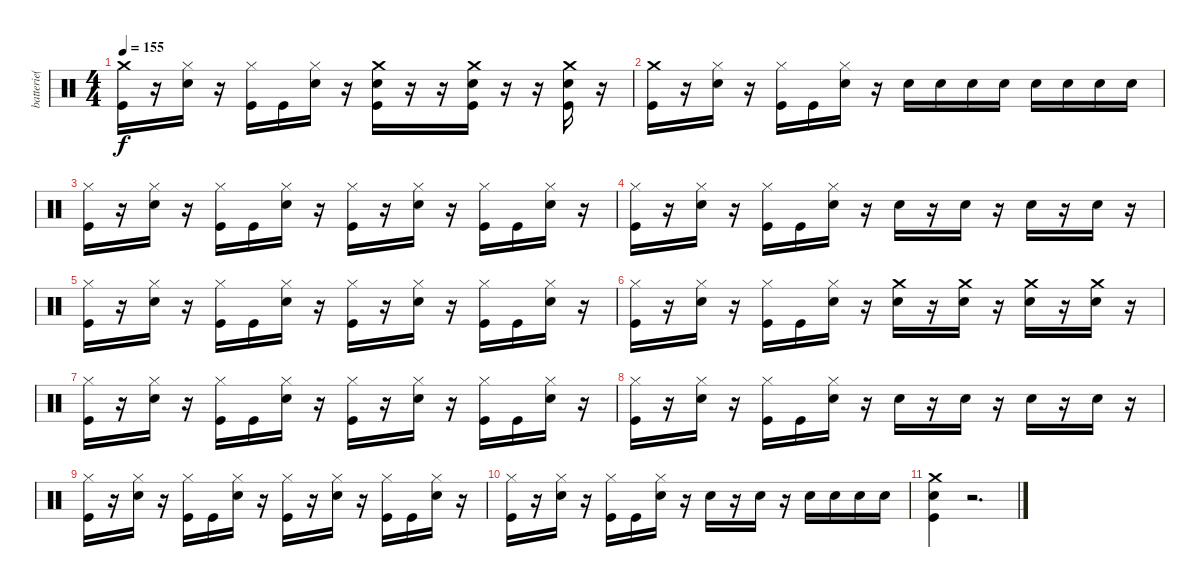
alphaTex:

\track ("batterie( Shawn )" "batterie( ") {instrument percussion}
\staff {score}
\articulation defaults
\ts (4 4)
\tempo 155
\clef neutral
\ks c
("Crash medium (hit)" "Kick (hit)").16{dy f} r.16 ("Hi-Hat (closed)" "Snare (hit) 2").16 r.16 ("Hi-Hat (closed)" "Kick (hit)").16 "Kick (hit)".16 ("Hi-Hat (closed)" "Snare (hit) 2").16 r.16 ("Crash medium (hit)" "Snare (hit) 2" "Kick (hit)").16 r.16 r.16 ("Crash medium (hit)" "Snare (hit) 2" "Kick (hit)").16 r.16 r.16 ("Crash medium (hit)" "Snare (hit) 2" "Kick (hit)").16 r.16 |
("Crash medium (hit)" "Kick (hit)").16 r.16 ("Hi-Hat (closed)" "Snare (hit) 2").16 r.16 ("Hi-Hat (closed)" "Kick (hit)").16 "Kick (hit)".16 ("Hi-Hat (closed)" "Snare (hit) 2").16 r.16 "Snare (hit) 2".16 "Snare (hit) 2".16 "Snare (hit) 2".16 "Snare (hit) 2".16 "Snare (hit) 2".16 "Snare (hit) 2".16 "Snare (hit) 2".16 "Snare (hit) 2".16 |
("Hi-Hat (closed)" "Kick (hit)").16 r.16 ("Hi-Hat (closed)" "Snare (hit) 2").16 r.16 ("Hi-Hat (closed)" "Kick (hit)").16 "Kick (hit)".16 ("Hi-Hat (closed)" "Snare (hit) 2").16 r.16 ("Hi-Hat (closed)" "Kick (hit)").16 r.16 ("Hi-Hat (closed)" "Snare (hit) 2").16 r.16 ("Hi-Hat (closed)" "Kick (hit)").16 "Kick (hit)".16 ("Hi-Hat (closed)" "Snare (hit) 2").16 r.16 |
("Hi-Hat (closed)" "Kick (hit)").16 r.16 ("Hi-Hat (closed)" "Snare (hit) 2").16 r.16 ("Hi-Hat (closed)" "Kick (hit)").16 "Kick (hit)".16 ("Hi-Hat (closed)" "Snare (hit) 2").16 r.16 "Snare (hit) 2".16 r.16 "Snare (hit) 2".16 r.16 "Snare (hit) 2".16 r.16 "Snare (hit) 2".16 r.16 |
("Hi-Hat (closed)" "Kick (hit)").16 r.16 ("Hi-Hat (closed)" "Snare (hit) 2").16 r.16 ("Hi-Hat (closed)" "Kick (hit)").16 "Kick (hit)".16 ("Hi-Hat (closed)" "Snare (hit) 2").16 r.16 ("Hi-Hat (closed)" "Kick (hit)").16 r.16 ("Hi-Hat (closed)" "Snare (hit) 2").16 r.16 ("Hi-Hat (closed)" "Kick (hit)").16 "Kick (hit)".16 ("Hi-Hat (closed)" "Snare (hit) 2").16 r.16 |
("Hi-Hat (closed)" "Kick (hit)").16 r.16 ("Hi-Hat (closed)" "Snare (hit) 2").16 r.16 ("Hi-Hat (closed)" "Kick (hit)").16 "Kick (hit)".16 ("Hi-Hat (closed)" "Snare (hit) 2").16 r.16 ("Crash medium (hit)" "Snare (hit) 2").16 r.16 ("Crash medium (hit)" "Snare (hit) 2").16 r.16 ("Crash medium (hit)" "Snare (hit) 2").16 r.16 ("Crash medium (hit)" "Snare (hit) 2").16 r.16 |
("Hi-Hat (closed)" "Kick (hit)").16 r.16 ("Hi-Hat (closed)" "Snare (hit) 2").16 r.16 ("Hi-Hat (closed)" "Kick (hit)").16 "Kick (hit)".16 ("Hi-Hat (closed)" "Snare (hit) 2").16 r.16 ("Hi-Hat (closed)" "Kick (hit)").16 r.16 ("Hi-Hat (closed)" "Snare (hit) 2").16 r.16 ("Hi-Hat (closed)" "Kick (hit)").16 "Kick (hit)".16 ("Hi-Hat (closed)" "Snare (hit) 2").16 r.16 |
("Hi-Hat (closed)" "Kick (hit)").16 r.16 ("Hi-Hat (closed)" "Snare (hit) 2").16 r.16 ("Hi-Hat (closed)" "Kick (hit)").16 "Kick (hit)".16 ("Hi-Hat (closed)" "Snare (hit) 2").16 r.16 "Snare (hit) 2".16 r.16 "Snare (hit) 2".16 r.16 "Snare (hit) 2".16 r.16 "Snare (hit) 2".16 r.16 |
("Hi-Hat (closed)" "Kick (hit)").16 r.16 ("Hi-Hat (closed)" "Snare (hit) 2").16 r.16 ("Hi-Hat (closed)" "Kick (hit)").16 "Kick (hit)".16 ("Hi-Hat (closed)" "Snare (hit) 2").16 r.16 ("Hi-Hat (closed)" "Kick (hit)").16 r.16 ("Hi-Hat (closed)" "Snare (hit) 2").16 r.16 ("Hi-Hat (closed)" "Kick (hit)").16 "Kick (hit)".16 ("Hi-Hat (closed)" "Snare (hit) 2").16 r.16 |
("Hi-Hat (closed)" "Kick (hit)").16 r.16 ("Hi-Hat (closed)" "Snare (hit) 2").16 r.16 ("Hi-Hat (closed)" "Kick (hit)").16 "Kick (hit)".16 ("Hi-Hat (closed)" "Snare (hit) 2").16 r.16 "Snare (hit) 2".16 r.16 "Snare (hit) 2".16 r.16 "Snare (hit) 2".16 "Snare (hit) 2".16 "Snare (hit) 2".16 "Snare (hit) 2".16 |
("Crash medium (hit)" "Snare (hit) 2" "Kick (hit)").4 r.2{d}
